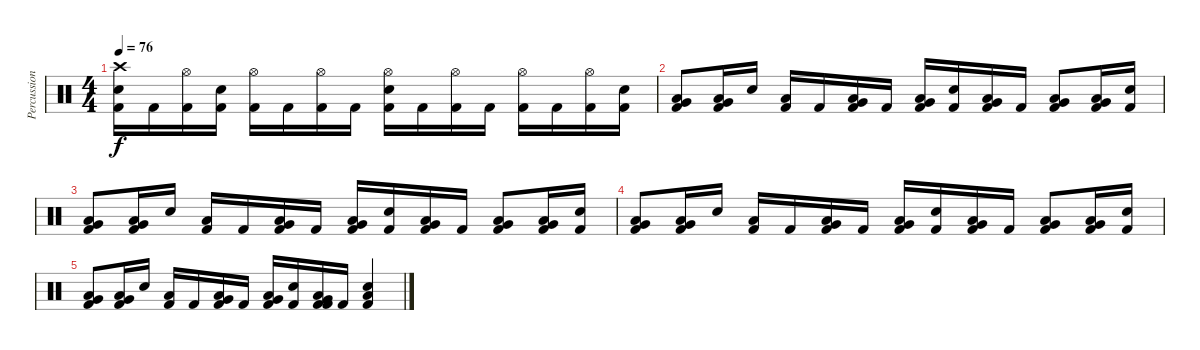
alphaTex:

\track ("Percussion" "Percussion") {instrument percussion}
\staff {score}
\articulation defaults
\ts (4 4)
\tempo 76
\clef neutral
\ks c
("Crash high (hit)" "Kick (hit) 2" "Snare (hit) 2").16{dy f} "Kick (hit) 2".16 ("Hi-Hat (open)" "Kick (hit) 2").16 ("Kick (hit) 2" "Snare (hit) 2").16 ("Hi-Hat (open)" "Kick (hit) 2").16 "Kick (hit) 2".16 ("Hi-Hat (open)" "Kick (hit) 2").16 "Kick (hit) 2".16 ("Hi-Hat (open)" "Kick (hit) 2" "Snare (hit) 2").16 "Kick (hit) 2".16 ("Hi-Hat (open)" "Kick (hit) 2").16 "Kick (hit) 2".16 ("Hi-Hat (open)" "Kick (hit) 2").16 "Kick (hit) 2".16 ("Hi-Hat (open)" "Kick (hit) 2").16 ("Kick (hit) 2" "Snare (hit) 2").16 |
("Low Tom (hit)" "Very Low Tom (hit)" "Kick (hit) 2").8 ("Low Tom (hit)" "Very Low Tom (hit)" "Kick (hit) 2").16 "Snare (hit) 2".16 ("Kick (hit) 2" "Low Tom (hit)").16 "Kick (hit) 2".16 ("Low Tom (hit)" "Very Low Tom (hit)" "Kick (hit) 2").16 "Kick (hit) 2".16 ("Low Tom (hit)" "Very Low Tom (hit)" "Kick (hit) 2").16 ("Snare (hit) 2" "Kick (hit) 2").16 ("Kick (hit) 2" "Low Tom (hit)" "Very Low Tom (hit)").16 "Kick (hit) 2".16 ("Low Tom (hit)" "Very Low Tom (hit)" "Kick (hit) 2").8 ("Low Tom (hit)" "Very Low Tom (hit)" "Kick (hit) 2").16 ("Snare (hit) 2" "Kick (hit) 2").16 |
("Low Tom (hit)" "Very Low Tom (hit)" "Kick (hit) 2").8 ("Low Tom (hit)" "Very Low Tom (hit)" "Kick (hit) 2").16 "Snare (hit) 2".16 ("Kick (hit) 2" "Low Tom (hit)").16 "Kick (hit) 2".16 ("Low Tom (hit)" "Very Low Tom (hit)" "Kick (hit) 2").16 "Kick (hit) 2".16 ("Low Tom (hit)" "Very Low Tom (hit)" "Kick (hit) 2").16 ("Snare (hit) 2" "Kick (hit) 2").16 ("Kick (hit) 2" "Low Tom (hit)" "Very Low Tom (hit)").16 "Kick (hit) 2".16 ("Low Tom (hit)" "Very Low Tom (hit)" "Kick (hit) 2").8 ("Low Tom (hit)" "Very Low Tom (hit)" "Kick (hit) 2").16 ("Snare (hit) 2" "Kick (hit) 2").16 |
("Low Tom (hit)" "Very Low Tom (hit)" "Kick (hit) 2").8 ("Low Tom (hit)" "Very Low Tom (hit)" "Kick (hit) 2").16 "Snare (hit) 2".16 ("Kick (hit) 2" "Low Tom (hit)").16 "Kick (hit) 2".16 ("Low Tom (hit)" "Very Low Tom (hit)" "Kick (hit) 2").16 "Kick (hit) 2".16 ("Low Tom (hit)" "Very Low Tom (hit)" "Kick (hit) 2").16 ("Snare (hit) 2" "Kick (hit) 2").16 ("Kick (hit) 2" "Low Tom (hit)" "Very Low Tom (hit)").16 "Kick (hit) 2".16 ("Low Tom (hit)" "Very Low Tom (hit)" "Kick (hit) 2").8 ("Low Tom (hit)" "Very Low Tom (hit)" "Kick (hit) 2").16 ("Snare (hit) 2" "Kick (hit) 2").16 |
("Low Tom (hit)" "Very Low Tom (hit)" "Kick (hit) 2").8 ("Low Tom (hit)" "Very Low Tom (hit)" "Kick (hit) 2").16 "Snare (hit) 2".16 ("Kick (hit) 2" "Low Tom (hit)").16 "Kick (hit) 2".16 ("Low Tom (hit)" "Very Low Tom (hit)" "Kick (hit) 2").16 "Kick (hit) 2".16 ("Low Tom (hit)" "Very Low Tom (hit)" "Kick (hit) 2").16 ("Kick (hit) 2" "Snare (hit) 2").16 ("Kick (hit) 2" "Low Tom (hit)" "Very Low Tom (hit)" "Kick (hit) 2").16 "Kick (hit) 2".16 ("Low Tom (hit)" "Snare (hit) 2" "Kick (hit) 2").4
